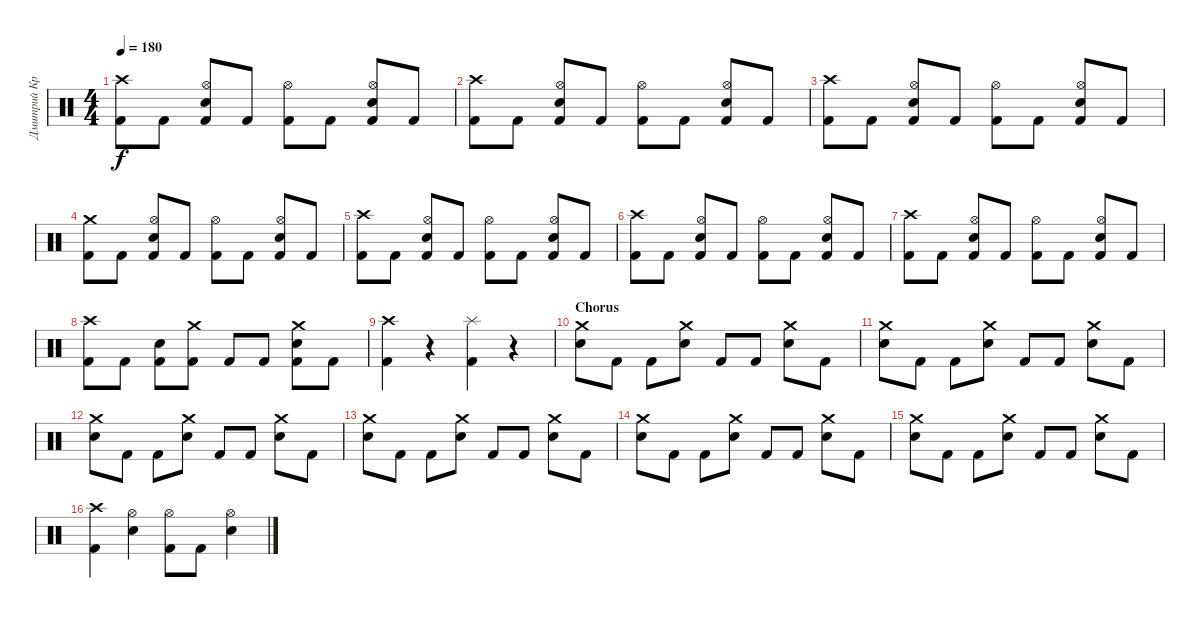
\track ("Дмитрий Кривенков" "Дмитрий Кр") {instrument percussion}
\staff {score}
\articulation defaults
\ts (4 4)
\tempo 180
\clef neutral
\ks c
("Kick (hit) 2" "Crash high (hit)").8{dy f} "Kick (hit) 2".8 ("Hi-Hat (open)" "Electric Snare (hit)" "Kick (hit) 2").8 "Kick (hit) 2".8 ("Hi-Hat (open)" "Kick (hit) 2").8 "Kick (hit) 2".8 ("Kick (hit) 2" "Electric Snare (hit)" "Hi-Hat (open)").8 "Kick (hit) 2".8 |
("Kick (hit) 2" "Crash high (hit)").8 "Kick (hit) 2".8 ("Hi-Hat (open)" "Electric Snare (hit)" "Kick (hit) 2").8 "Kick (hit) 2".8 ("Hi-Hat (open)" "Kick (hit) 2").8 "Kick (hit) 2".8 ("Kick (hit) 2" "Electric Snare (hit)" "Hi-Hat (open)").8 "Kick (hit) 2".8 |
("Kick (hit) 2" "Crash high (hit)").8 "Kick (hit) 2".8 ("Hi-Hat (open)" "Electric Snare (hit)" "Kick (hit) 2").8 "Kick (hit) 2".8 ("Hi-Hat (open)" "Kick (hit) 2").8 "Kick (hit) 2".8 ("Kick (hit) 2" "Electric Snare (hit)" "Hi-Hat (open)").8 "Kick (hit) 2".8 |
("Kick (hit) 2" "Crash medium (hit)").8 "Kick (hit) 2".8 ("Hi-Hat (open)" "Electric Snare (hit)" "Kick (hit) 2").8 "Kick (hit) 2".8 ("Hi-Hat (open)" "Kick (hit) 2").8 "Kick (hit) 2".8 ("Kick (hit) 2" "Electric Snare (hit)" "Hi-Hat (open)").8 "Kick (hit) 2".8 |
("Kick (hit) 2" "Crash high (hit)").8 "Kick (hit) 2".8 ("Hi-Hat (open)" "Electric Snare (hit)" "Kick (hit) 2").8 "Kick (hit) 2".8 ("Hi-Hat (open)" "Kick (hit) 2").8 "Kick (hit) 2".8 ("Kick (hit) 2" "Electric Snare (hit)" "Hi-Hat (open)").8 "Kick (hit) 2".8 |
("Kick (hit) 2" "Crash high (hit)").8 "Kick (hit) 2".8 ("Hi-Hat (open)" "Electric Snare (hit)" "Kick (hit) 2").8 "Kick (hit) 2".8 ("Hi-Hat (open)" "Kick (hit) 2").8 "Kick (hit) 2".8 ("Kick (hit) 2" "Electric Snare (hit)" "Hi-Hat (open)").8 "Kick (hit) 2".8 |
("Kick (hit) 2" "Crash high (hit)").8 "Kick (hit) 2".8 ("Hi-Hat (open)" "Electric Snare (hit)" "Kick (hit) 2").8 "Kick (hit) 2".8 ("Hi-Hat (open)" "Kick (hit) 2").8 "Kick (hit) 2".8 ("Kick (hit) 2" "Electric Snare (hit)" "Hi-Hat (open)").8 "Kick (hit) 2".8 |
("Crash high (hit)" "Kick (hit) 2").8 "Kick (hit) 2".8 ("Kick (hit) 2" "Electric Snare (hit)").8 ("Crash medium (hit)" "Kick (hit) 2").8 "Kick (hit) 2".8 "Kick (hit) 2".8 ("Kick (hit) 2" "Electric Snare (hit)" "Crash medium (hit)").8 "Kick (hit) 2".8 |
("Crash high (hit)" "Kick (hit) 2").4 r.4 ("Splash (hit)" "Kick (hit) 2").4 r.4 |
\section ("" "Chorus")
("Crash medium (hit)" "Electric Snare (hit)").8 "Kick (hit) 2".8 "Kick (hit) 2".8 ("Electric Snare (hit)" "Crash medium (hit)").8 "Kick (hit) 2".8 "Kick (hit) 2".8 ("Crash medium (hit)" "Electric Snare (hit)").8 "Kick (hit) 2".8 |
("Crash medium (hit)" "Electric Snare (hit)").8 "Kick (hit) 2".8 "Kick (hit) 2".8 ("Electric Snare (hit)" "Crash medium (hit)").8 "Kick (hit) 2".8 "Kick (hit) 2".8 ("Crash medium (hit)" "Electric Snare (hit)").8 "Kick (hit) 2".8 |
("Crash medium (hit)" "Electric Snare (hit)").8 "Kick (hit) 2".8 "Kick (hit) 2".8 ("Electric Snare (hit)" "Crash medium (hit)").8 "Kick (hit) 2".8 "Kick (hit) 2".8 ("Crash medium (hit)" "Electric Snare (hit)").8 "Kick (hit) 2".8 |
("Crash medium (hit)" "Electric Snare (hit)").8 "Kick (hit) 2".8 "Kick (hit) 2".8 ("Electric Snare (hit)" "Crash medium (hit)").8 "Kick (hit) 2".8 "Kick (hit) 2".8 ("Crash medium (hit)" "Electric Snare (hit)").8 "Kick (hit) 2".8 |
("Crash medium (hit)" "Electric Snare (hit)").8 "Kick (hit) 2".8 "Kick (hit) 2".8 ("Electric Snare (hit)" "Crash medium (hit)").8 "Kick (hit) 2".8 "Kick (hit) 2".8 ("Crash medium (hit)" "Electric Snare (hit)").8 "Kick (hit) 2".8 |
("Crash medium (hit)" "Electric Snare (hit)").8 "Kick (hit) 2".8 "Kick (hit) 2".8 ("Electric Snare (hit)" "Crash medium (hit)").8 "Kick (hit) 2".8 "Kick (hit) 2".8 ("Crash medium (hit)" "Electric Snare (hit)").8 "Kick (hit) 2".8 |
("Kick (hit) 2" "Crash high (hit)").4 ("Hi-Hat (open)" "Electric Snare (hit)").4 ("Kick (hit) 2" "Hi-Hat (open)").8 "Kick (hit) 2".8 ("Hi-Hat (open)" "Electric Snare (hit)").4
